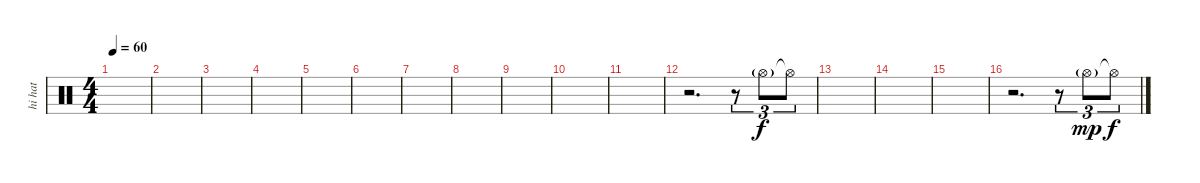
\track ("hi hat" "hi hat") {instrument percussion}
\staff {score}
\articulation defaults
\ts (4 4)
\tempo 60
\clef neutral
\ks c
|
|
|
|
|
|
|
|
|
|
|
r.2{d} r.8{tu (3 2)} "Hi-Hat (open)"{g}.8{tu (3 2)} "Hi-Hat (open)"{t}.8{tu (3 2) dy f} |
|
|
|
r.2{d} r.8{tu (3 2)} "Hi-Hat (open)"{g}.8{tu (3 2) dy mp} "Hi-Hat (open)"{t}.8{tu (3 2) dy f}
